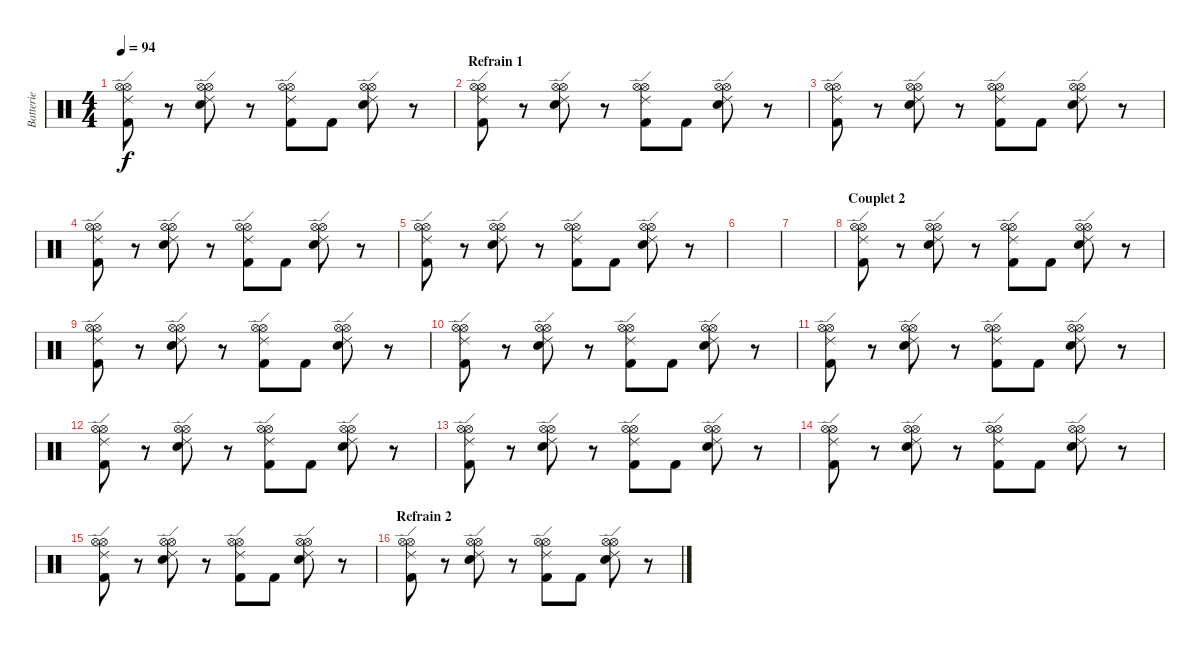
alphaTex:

\track ("Batterie" "Batterie") {instrument percussion}
\staff {score}
\articulation defaults
\ts (4 4)
\tempo 94
\clef neutral
\ks c
("Hi-Hat (open)" "Hi-Hat (open)" "Ride (edge) 2" "Kick (hit) 2").8{dy f} r.8 ("Snare (hit) 2" "Hi-Hat (open)" "Hi-Hat (open)" "Ride (edge) 2").8 r.8 ("Hi-Hat (open)" "Hi-Hat (open)" "Ride (edge) 2" "Kick (hit) 2").8 "Kick (hit) 2".8 ("Snare (hit) 2" "Hi-Hat (open)" "Hi-Hat (open)" "Ride (edge) 2").8 r.8 |
\section ("" "Refrain 1")
("Hi-Hat (open)" "Hi-Hat (open)" "Ride (edge) 2" "Kick (hit) 2").8 r.8 ("Snare (hit) 2" "Hi-Hat (open)" "Hi-Hat (open)" "Ride (edge) 2").8 r.8 ("Hi-Hat (open)" "Hi-Hat (open)" "Ride (edge) 2" "Kick (hit) 2").8 "Kick (hit) 2".8 ("Snare (hit) 2" "Hi-Hat (open)" "Hi-Hat (open)" "Ride (edge) 2").8 r.8 |
("Hi-Hat (open)" "Hi-Hat (open)" "Ride (edge) 2" "Kick (hit) 2").8 r.8 ("Snare (hit) 2" "Hi-Hat (open)" "Hi-Hat (open)" "Ride (edge) 2").8 r.8 ("Hi-Hat (open)" "Hi-Hat (open)" "Ride (edge) 2" "Kick (hit) 2").8 "Kick (hit) 2".8 ("Snare (hit) 2" "Hi-Hat (open)" "Hi-Hat (open)" "Ride (edge) 2").8 r.8 |
("Hi-Hat (open)" "Hi-Hat (open)" "Ride (edge) 2" "Kick (hit) 2").8 r.8 ("Snare (hit) 2" "Hi-Hat (open)" "Hi-Hat (open)" "Ride (edge) 2").8 r.8 ("Hi-Hat (open)" "Hi-Hat (open)" "Ride (edge) 2" "Kick (hit) 2").8 "Kick (hit) 2".8 ("Snare (hit) 2" "Hi-Hat (open)" "Hi-Hat (open)" "Ride (edge) 2").8 r.8 |
("Hi-Hat (open)" "Hi-Hat (open)" "Ride (edge) 2" "Kick (hit) 2").8 r.8 ("Snare (hit) 2" "Hi-Hat (open)" "Hi-Hat (open)" "Ride (edge) 2").8 r.8 ("Hi-Hat (open)" "Hi-Hat (open)" "Ride (edge) 2" "Kick (hit) 2").8 "Kick (hit) 2".8 ("Snare (hit) 2" "Hi-Hat (open)" "Hi-Hat (open)" "Ride (edge) 2").8 r.8 |
|
|
\section ("" "Couplet 2")
("Hi-Hat (open)" "Hi-Hat (open)" "Ride (edge) 2" "Kick (hit) 2").8 r.8 ("Snare (hit) 2" "Hi-Hat (open)" "Hi-Hat (open)" "Ride (edge) 2").8 r.8 ("Hi-Hat (open)" "Hi-Hat (open)" "Ride (edge) 2" "Kick (hit) 2").8 "Kick (hit) 2".8 ("Snare (hit) 2" "Hi-Hat (open)" "Hi-Hat (open)" "Ride (edge) 2").8 r.8 |
("Hi-Hat (open)" "Hi-Hat (open)" "Ride (edge) 2" "Kick (hit) 2").8 r.8 ("Snare (hit) 2" "Hi-Hat (open)" "Hi-Hat (open)" "Ride (edge) 2").8 r.8 ("Hi-Hat (open)" "Hi-Hat (open)" "Ride (edge) 2" "Kick (hit) 2").8 "Kick (hit) 2".8 ("Snare (hit) 2" "Hi-Hat (open)" "Hi-Hat (open)" "Ride (edge) 2").8 r.8 |
("Hi-Hat (open)" "Hi-Hat (open)" "Ride (edge) 2" "Kick (hit) 2").8 r.8 ("Snare (hit) 2" "Hi-Hat (open)" "Hi-Hat (open)" "Ride (edge) 2").8 r.8 ("Hi-Hat (open)" "Hi-Hat (open)" "Ride (edge) 2" "Kick (hit) 2").8 "Kick (hit) 2".8 ("Snare (hit) 2" "Hi-Hat (open)" "Hi-Hat (open)" "Ride (edge) 2").8 r.8 |
("Hi-Hat (open)" "Hi-Hat (open)" "Ride (edge) 2" "Kick (hit) 2").8 r.8 ("Snare (hit) 2" "Hi-Hat (open)" "Hi-Hat (open)" "Ride (edge) 2").8 r.8 ("Hi-Hat (open)" "Hi-Hat (open)" "Ride (edge) 2" "Kick (hit) 2").8 "Kick (hit) 2".8 ("Snare (hit) 2" "Hi-Hat (open)" "Hi-Hat (open)" "Ride (edge) 2").8 r.8 |
("Hi-Hat (open)" "Hi-Hat (open)" "Ride (edge) 2" "Kick (hit) 2").8 r.8 ("Snare (hit) 2" "Hi-Hat (open)" "Hi-Hat (open)" "Ride (edge) 2").8 r.8 ("Hi-Hat (open)" "Hi-Hat (open)" "Ride (edge) 2" "Kick (hit) 2").8 "Kick (hit) 2".8 ("Snare (hit) 2" "Hi-Hat (open)" "Hi-Hat (open)" "Ride (edge) 2").8 r.8 |
("Hi-Hat (open)" "Hi-Hat (open)" "Ride (edge) 2" "Kick (hit) 2").8 r.8 ("Snare (hit) 2" "Hi-Hat (open)" "Hi-Hat (open)" "Ride (edge) 2").8 r.8 ("Hi-Hat (open)" "Hi-Hat (open)" "Ride (edge) 2" "Kick (hit) 2").8 "Kick (hit) 2".8 ("Snare (hit) 2" "Hi-Hat (open)" "Hi-Hat (open)" "Ride (edge) 2").8 r.8 |
("Hi-Hat (open)" "Hi-Hat (open)" "Ride (edge) 2" "Kick (hit) 2").8 r.8 ("Snare (hit) 2" "Hi-Hat (open)" "Hi-Hat (open)" "Ride (edge) 2").8 r.8 ("Hi-Hat (open)" "Hi-Hat (open)" "Ride (edge) 2" "Kick (hit) 2").8 "Kick (hit) 2".8 ("Snare (hit) 2" "Hi-Hat (open)" "Hi-Hat (open)" "Ride (edge) 2").8 r.8 |
("Hi-Hat (open)" "Hi-Hat (open)" "Ride (edge) 2" "Kick (hit) 2").8 r.8 ("Snare (hit) 2" "Hi-Hat (open)" "Hi-Hat (open)" "Ride (edge) 2").8 r.8 ("Hi-Hat (open)" "Hi-Hat (open)" "Ride (edge) 2" "Kick (hit) 2").8 "Kick (hit) 2".8 ("Snare (hit) 2" "Hi-Hat (open)" "Hi-Hat (open)" "Ride (edge) 2").8 r.8 |
\section ("" "Refrain 2")
("Hi-Hat (open)" "Hi-Hat (open)" "Ride (edge) 2" "Kick (hit) 2").8 r.8 ("Snare (hit) 2" "Hi-Hat (open)" "Hi-Hat (open)" "Ride (edge) 2").8 r.8 ("Hi-Hat (open)" "Hi-Hat (open)" "Ride (edge) 2" "Kick (hit) 2").8 "Kick (hit) 2".8 ("Snare (hit) 2" "Hi-Hat (open)" "Hi-Hat (open)" "Ride (edge) 2").8 r.8
